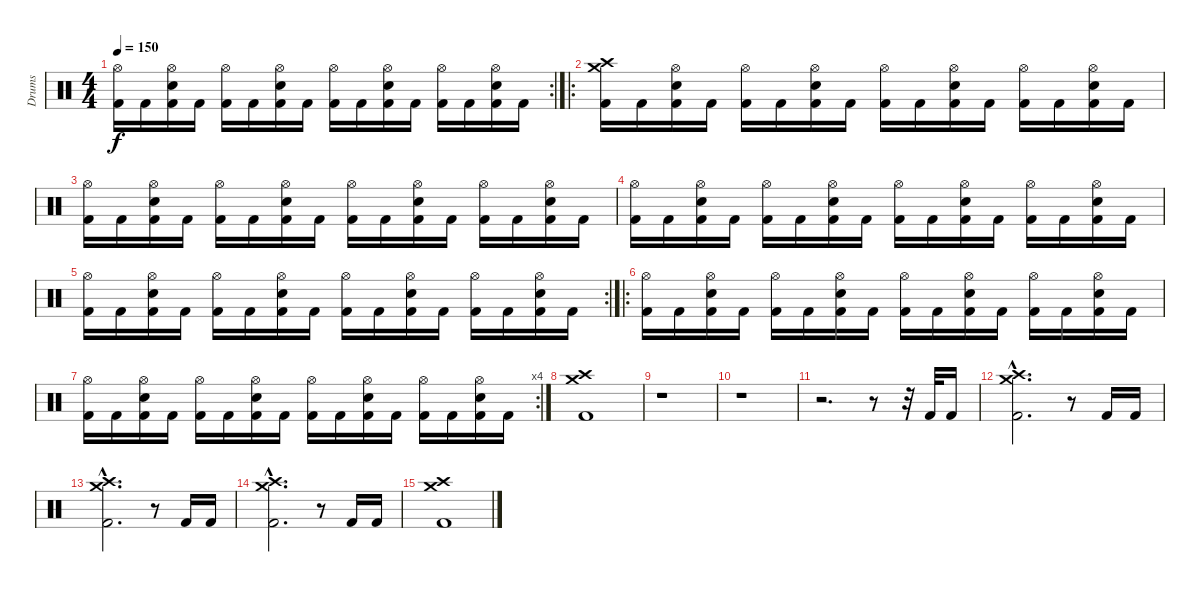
\track ("Drums" "Drums") {instrument percussion}
\staff {score}
\articulation defaults
\rc 2
\ts (4 4)
\tempo 150
\clef neutral
\ks c
("Hi-Hat (open)" "Kick (hit) 2").16{dy f} "Kick (hit) 2".16 ("Hi-Hat (open)" "Electric Snare (hit)" "Kick (hit) 2").16 "Kick (hit) 2".16 ("Hi-Hat (open)" "Kick (hit) 2").16 "Kick (hit) 2".16 ("Hi-Hat (open)" "Electric Snare (hit)" "Kick (hit) 2").16 "Kick (hit) 2".16 ("Hi-Hat (open)" "Kick (hit) 2").16 "Kick (hit) 2".16 ("Hi-Hat (open)" "Electric Snare (hit)" "Kick (hit) 2").16 "Kick (hit) 2".16 ("Hi-Hat (open)" "Kick (hit) 2").16 "Kick (hit) 2".16 ("Hi-Hat (open)" "Electric Snare (hit)" "Kick (hit) 2").16 "Kick (hit) 2".16 |
\ro
("Crash medium (hit)" "Crash high (hit)" "Kick (hit) 2").16 "Kick (hit) 2".16 ("Hi-Hat (open)" "Electric Snare (hit)" "Kick (hit) 2").16 "Kick (hit) 2".16 ("Hi-Hat (open)" "Kick (hit) 2").16 "Kick (hit) 2".16 ("Hi-Hat (open)" "Electric Snare (hit)" "Kick (hit) 2").16 "Kick (hit) 2".16 ("Hi-Hat (open)" "Kick (hit) 2").16 "Kick (hit) 2".16 ("Hi-Hat (open)" "Electric Snare (hit)" "Kick (hit) 2").16 "Kick (hit) 2".16 ("Hi-Hat (open)" "Kick (hit) 2").16 "Kick (hit) 2".16 ("Hi-Hat (open)" "Electric Snare (hit)" "Kick (hit) 2").16 "Kick (hit) 2".16 |
("Hi-Hat (open)" "Kick (hit) 2").16 "Kick (hit) 2".16 ("Hi-Hat (open)" "Electric Snare (hit)" "Kick (hit) 2").16 "Kick (hit) 2".16 ("Hi-Hat (open)" "Kick (hit) 2").16 "Kick (hit) 2".16 ("Hi-Hat (open)" "Electric Snare (hit)" "Kick (hit) 2").16 "Kick (hit) 2".16 ("Hi-Hat (open)" "Kick (hit) 2").16 "Kick (hit) 2".16 ("Hi-Hat (open)" "Electric Snare (hit)" "Kick (hit) 2").16 "Kick (hit) 2".16 ("Hi-Hat (open)" "Kick (hit) 2").16 "Kick (hit) 2".16 ("Hi-Hat (open)" "Electric Snare (hit)" "Kick (hit) 2").16 "Kick (hit) 2".16 |
("Hi-Hat (open)" "Kick (hit) 2").16 "Kick (hit) 2".16 ("Hi-Hat (open)" "Electric Snare (hit)" "Kick (hit) 2").16 "Kick (hit) 2".16 ("Hi-Hat (open)" "Kick (hit) 2").16 "Kick (hit) 2".16 ("Hi-Hat (open)" "Electric Snare (hit)" "Kick (hit) 2").16 "Kick (hit) 2".16 ("Hi-Hat (open)" "Kick (hit) 2").16 "Kick (hit) 2".16 ("Hi-Hat (open)" "Electric Snare (hit)" "Kick (hit) 2").16 "Kick (hit) 2".16 ("Hi-Hat (open)" "Kick (hit) 2").16 "Kick (hit) 2".16 ("Hi-Hat (open)" "Electric Snare (hit)" "Kick (hit) 2").16 "Kick (hit) 2".16 |
\rc 2
("Hi-Hat (open)" "Kick (hit) 2").16 "Kick (hit) 2".16 ("Hi-Hat (open)" "Electric Snare (hit)" "Kick (hit) 2").16 "Kick (hit) 2".16 ("Hi-Hat (open)" "Kick (hit) 2").16 "Kick (hit) 2".16 ("Hi-Hat (open)" "Electric Snare (hit)" "Kick (hit) 2").16 "Kick (hit) 2".16 ("Hi-Hat (open)" "Kick (hit) 2").16 "Kick (hit) 2".16 ("Hi-Hat (open)" "Electric Snare (hit)" "Kick (hit) 2").16 "Kick (hit) 2".16 ("Hi-Hat (open)" "Kick (hit) 2").16 "Kick (hit) 2".16 ("Hi-Hat (open)" "Electric Snare (hit)" "Kick (hit) 2").16 "Kick (hit) 2".16 |
\ro
("Hi-Hat (open)" "Kick (hit) 2").16 "Kick (hit) 2".16 ("Hi-Hat (open)" "Electric Snare (hit)" "Kick (hit) 2").16 "Kick (hit) 2".16 ("Hi-Hat (open)" "Kick (hit) 2").16 "Kick (hit) 2".16 ("Hi-Hat (open)" "Electric Snare (hit)" "Kick (hit) 2").16 "Kick (hit) 2".16 ("Hi-Hat (open)" "Kick (hit) 2").16 "Kick (hit) 2".16 ("Hi-Hat (open)" "Electric Snare (hit)" "Kick (hit) 2").16 "Kick (hit) 2".16 ("Hi-Hat (open)" "Kick (hit) 2").16 "Kick (hit) 2".16 ("Hi-Hat (open)" "Electric Snare (hit)" "Kick (hit) 2").16 "Kick (hit) 2".16 |
\rc 4
("Hi-Hat (open)" "Kick (hit) 2").16 "Kick (hit) 2".16 ("Hi-Hat (open)" "Electric Snare (hit)" "Kick (hit) 2").16 "Kick (hit) 2".16 ("Hi-Hat (open)" "Kick (hit) 2").16 "Kick (hit) 2".16 ("Hi-Hat (open)" "Electric Snare (hit)" "Kick (hit) 2").16 "Kick (hit) 2".16 ("Hi-Hat (open)" "Kick (hit) 2").16 "Kick (hit) 2".16 ("Hi-Hat (open)" "Electric Snare (hit)" "Kick (hit) 2").16 "Kick (hit) 2".16 ("Hi-Hat (open)" "Kick (hit) 2").16 "Kick (hit) 2".16 ("Hi-Hat (open)" "Electric Snare (hit)" "Kick (hit) 2").16 "Kick (hit) 2".16 |
("Crash medium (hit)" "Crash high (hit)" "Kick (hit) 2").1 |
r.1 |
r.1 |
r.2{d} r.8 r.32 "Kick (hit) 2".32 "Kick (hit) 2".16 |
("Crash medium (hit)"{hac} "Crash high (hit)"{hac} "Kick (hit) 2"{hac}).2{d} r.8 "Kick (hit) 2".16 "Kick (hit) 2".16 |
("Crash medium (hit)"{hac} "Crash high (hit)"{hac} "Kick (hit) 2"{hac}).2{d} r.8 "Kick (hit) 2".16 "Kick (hit) 2".16 |
("Crash medium (hit)"{hac} "Crash high (hit)"{hac} "Kick (hit) 2"{hac}).2{d} r.8 "Kick (hit) 2".16 "Kick (hit) 2".16 |
("Crash medium (hit)" "Crash high (hit)" "Kick (hit) 2").1
